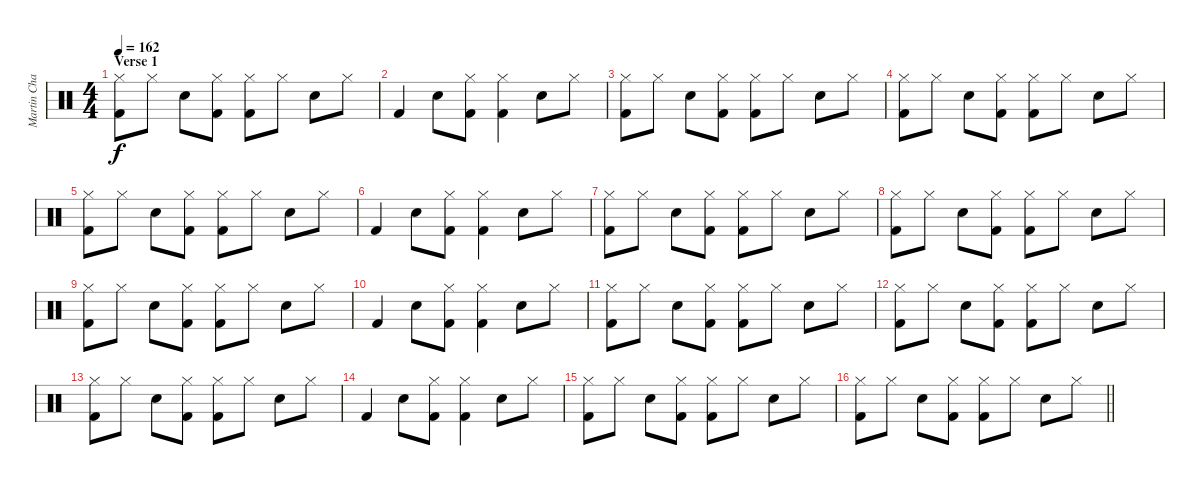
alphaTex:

\track ("Martin Chambers" "Martin Cha") {instrument percussion}
\staff {score}
\articulation defaults
\ts (4 4)
\section ("" "Verse 1")
\tempo 162
\clef neutral
\ks c
("Hi-Hat (closed)" "Kick (hit) 2").8{dy f} "Hi-Hat (closed)".8 "Snare (hit) 2".8 ("Hi-Hat (closed)" "Kick (hit) 2").8 ("Hi-Hat (closed)" "Kick (hit) 2").8 "Hi-Hat (closed)".8 "Snare (hit) 2".8 "Hi-Hat (closed)".8 |
"Kick (hit) 2".4 "Snare (hit) 2".8 ("Hi-Hat (closed)" "Kick (hit) 2").8 ("Hi-Hat (closed)" "Kick (hit) 2").4 "Snare (hit) 2".8 "Hi-Hat (closed)".8 |
("Hi-Hat (closed)" "Kick (hit) 2").8 "Hi-Hat (closed)".8 "Snare (hit) 2".8 ("Hi-Hat (closed)" "Kick (hit) 2").8 ("Hi-Hat (closed)" "Kick (hit) 2").8 "Hi-Hat (closed)".8 "Snare (hit) 2".8 "Hi-Hat (closed)".8 |
("Hi-Hat (closed)" "Kick (hit) 2").8 "Hi-Hat (closed)".8 "Snare (hit) 2".8 ("Hi-Hat (closed)" "Kick (hit) 2").8 ("Hi-Hat (closed)" "Kick (hit) 2").8 "Hi-Hat (closed)".8 "Snare (hit) 2".8 "Hi-Hat (closed)".8 |
("Hi-Hat (closed)" "Kick (hit) 2").8 "Hi-Hat (closed)".8 "Snare (hit) 2".8 ("Hi-Hat (closed)" "Kick (hit) 2").8 ("Hi-Hat (closed)" "Kick (hit) 2").8 "Hi-Hat (closed)".8 "Snare (hit) 2".8 "Hi-Hat (closed)".8 |
"Kick (hit) 2".4 "Snare (hit) 2".8 ("Hi-Hat (closed)" "Kick (hit) 2").8 ("Hi-Hat (closed)" "Kick (hit) 2").4 "Snare (hit) 2".8 "Hi-Hat (closed)".8 |
("Hi-Hat (closed)" "Kick (hit) 2").8 "Hi-Hat (closed)".8 "Snare (hit) 2".8 ("Hi-Hat (closed)" "Kick (hit) 2").8 ("Hi-Hat (closed)" "Kick (hit) 2").8 "Hi-Hat (closed)".8 "Snare (hit) 2".8 "Hi-Hat (closed)".8 |
("Hi-Hat (closed)" "Kick (hit) 2").8 "Hi-Hat (closed)".8 "Snare (hit) 2".8 ("Hi-Hat (closed)" "Kick (hit) 2").8 ("Hi-Hat (closed)" "Kick (hit) 2").8 "Hi-Hat (closed)".8 "Snare (hit) 2".8 "Hi-Hat (closed)".8 |
("Hi-Hat (closed)" "Kick (hit) 2").8 "Hi-Hat (closed)".8 "Snare (hit) 2".8 ("Hi-Hat (closed)" "Kick (hit) 2").8 ("Hi-Hat (closed)" "Kick (hit) 2").8 "Hi-Hat (closed)".8 "Snare (hit) 2".8 "Hi-Hat (closed)".8 |
"Kick (hit) 2".4 "Snare (hit) 2".8 ("Hi-Hat (closed)" "Kick (hit) 2").8 ("Hi-Hat (closed)" "Kick (hit) 2").4 "Snare (hit) 2".8 "Hi-Hat (closed)".8 |
("Hi-Hat (closed)" "Kick (hit) 2").8 "Hi-Hat (closed)".8 "Snare (hit) 2".8 ("Hi-Hat (closed)" "Kick (hit) 2").8 ("Hi-Hat (closed)" "Kick (hit) 2").8 "Hi-Hat (closed)".8 "Snare (hit) 2".8 "Hi-Hat (closed)".8 |
("Hi-Hat (closed)" "Kick (hit) 2").8 "Hi-Hat (closed)".8 "Snare (hit) 2".8 ("Hi-Hat (closed)" "Kick (hit) 2").8 ("Hi-Hat (closed)" "Kick (hit) 2").8 "Hi-Hat (closed)".8 "Snare (hit) 2".8 "Hi-Hat (closed)".8 |
("Hi-Hat (closed)" "Kick (hit) 2").8 "Hi-Hat (closed)".8 "Snare (hit) 2".8 ("Hi-Hat (closed)" "Kick (hit) 2").8 ("Hi-Hat (closed)" "Kick (hit) 2").8 "Hi-Hat (closed)".8 "Snare (hit) 2".8 "Hi-Hat (closed)".8 |
"Kick (hit) 2".4 "Snare (hit) 2".8 ("Hi-Hat (closed)" "Kick (hit) 2").8 ("Hi-Hat (closed)" "Kick (hit) 2").4 "Snare (hit) 2".8 "Hi-Hat (closed)".8 |
("Hi-Hat (closed)" "Kick (hit) 2").8 "Hi-Hat (closed)".8 "Snare (hit) 2".8 ("Hi-Hat (closed)" "Kick (hit) 2").8 ("Hi-Hat (closed)" "Kick (hit) 2").8 "Hi-Hat (closed)".8 "Snare (hit) 2".8 "Hi-Hat (closed)".8 |
\barLineRight lightlight
("Hi-Hat (closed)" "Kick (hit) 2").8 "Hi-Hat (closed)".8 "Snare (hit) 2".8 ("Hi-Hat (closed)" "Kick (hit) 2").8 ("Hi-Hat (closed)" "Kick (hit) 2").8 "Hi-Hat (closed)".8 "Snare (hit) 2".8 "Hi-Hat (closed)".8
